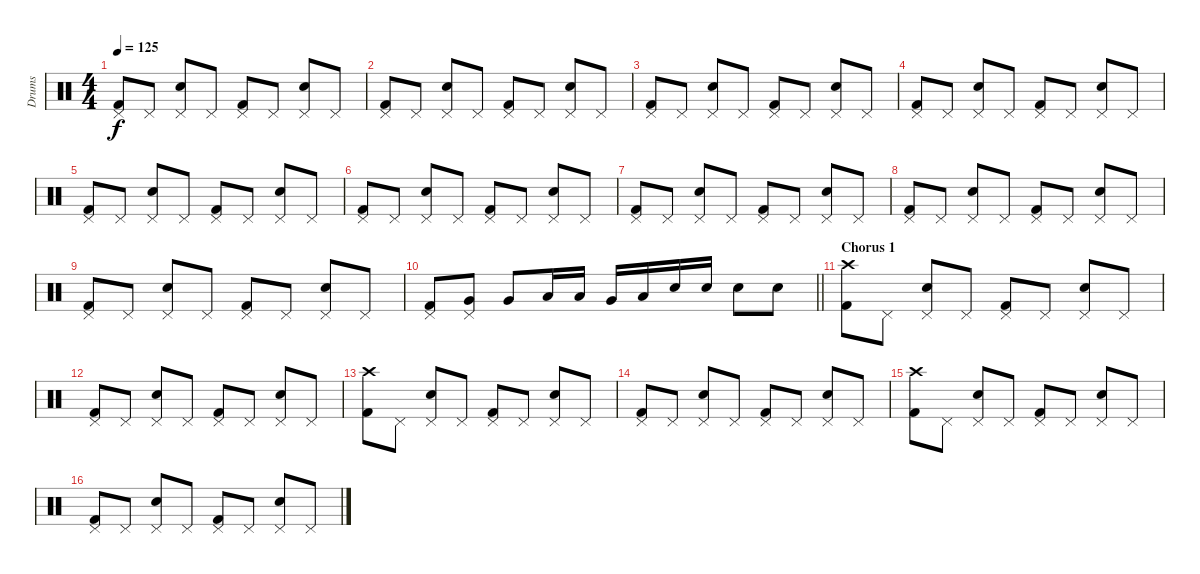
\track ("Drums" "Drums") {instrument percussion}
\staff {score}
\articulation defaults
\ts (4 4)
\tempo 125
\clef neutral
\ks c
("Pedal Hi-Hat (hit)" "Kick (hit) 2").8{dy f} "Pedal Hi-Hat (hit)".8 ("Pedal Hi-Hat (hit)" "Snare (hit) 2").8 "Pedal Hi-Hat (hit)".8 ("Pedal Hi-Hat (hit)" "Kick (hit) 2").8 "Pedal Hi-Hat (hit)".8 ("Pedal Hi-Hat (hit)" "Snare (hit) 2").8 "Pedal Hi-Hat (hit)".8 |
("Pedal Hi-Hat (hit)" "Kick (hit) 2").8 "Pedal Hi-Hat (hit)".8 ("Pedal Hi-Hat (hit)" "Snare (hit) 2").8 "Pedal Hi-Hat (hit)".8 ("Pedal Hi-Hat (hit)" "Kick (hit) 2").8 "Pedal Hi-Hat (hit)".8 ("Pedal Hi-Hat (hit)" "Snare (hit) 2").8 "Pedal Hi-Hat (hit)".8 |
("Pedal Hi-Hat (hit)" "Kick (hit) 2").8 "Pedal Hi-Hat (hit)".8 ("Pedal Hi-Hat (hit)" "Snare (hit) 2").8 "Pedal Hi-Hat (hit)".8 ("Pedal Hi-Hat (hit)" "Kick (hit) 2").8 "Pedal Hi-Hat (hit)".8 ("Pedal Hi-Hat (hit)" "Snare (hit) 2").8 "Pedal Hi-Hat (hit)".8 |
("Pedal Hi-Hat (hit)" "Kick (hit) 2").8 "Pedal Hi-Hat (hit)".8 ("Pedal Hi-Hat (hit)" "Snare (hit) 2").8 "Pedal Hi-Hat (hit)".8 ("Pedal Hi-Hat (hit)" "Kick (hit) 2").8 "Pedal Hi-Hat (hit)".8 ("Pedal Hi-Hat (hit)" "Snare (hit) 2").8 "Pedal Hi-Hat (hit)".8 |
("Pedal Hi-Hat (hit)" "Kick (hit) 2").8 "Pedal Hi-Hat (hit)".8 ("Pedal Hi-Hat (hit)" "Snare (hit) 2").8 "Pedal Hi-Hat (hit)".8 ("Pedal Hi-Hat (hit)" "Kick (hit) 2").8 "Pedal Hi-Hat (hit)".8 ("Pedal Hi-Hat (hit)" "Snare (hit) 2").8 "Pedal Hi-Hat (hit)".8 |
("Pedal Hi-Hat (hit)" "Kick (hit) 2").8 "Pedal Hi-Hat (hit)".8 ("Pedal Hi-Hat (hit)" "Snare (hit) 2").8 "Pedal Hi-Hat (hit)".8 ("Pedal Hi-Hat (hit)" "Kick (hit) 2").8 "Pedal Hi-Hat (hit)".8 ("Pedal Hi-Hat (hit)" "Snare (hit) 2").8 "Pedal Hi-Hat (hit)".8 |
("Pedal Hi-Hat (hit)" "Kick (hit) 2").8 "Pedal Hi-Hat (hit)".8 ("Pedal Hi-Hat (hit)" "Snare (hit) 2").8 "Pedal Hi-Hat (hit)".8 ("Pedal Hi-Hat (hit)" "Kick (hit) 2").8 "Pedal Hi-Hat (hit)".8 ("Pedal Hi-Hat (hit)" "Snare (hit) 2").8 "Pedal Hi-Hat (hit)".8 |
("Pedal Hi-Hat (hit)" "Kick (hit) 2").8 "Pedal Hi-Hat (hit)".8 ("Pedal Hi-Hat (hit)" "Snare (hit) 2").8 "Pedal Hi-Hat (hit)".8 ("Pedal Hi-Hat (hit)" "Kick (hit) 2").8 "Pedal Hi-Hat (hit)".8 ("Pedal Hi-Hat (hit)" "Snare (hit) 2").8 "Pedal Hi-Hat (hit)".8 |
("Pedal Hi-Hat (hit)" "Kick (hit) 2").8 "Pedal Hi-Hat (hit)".8 ("Pedal Hi-Hat (hit)" "Snare (hit) 2").8 "Pedal Hi-Hat (hit)".8 ("Pedal Hi-Hat (hit)" "Kick (hit) 2").8 "Pedal Hi-Hat (hit)".8 ("Pedal Hi-Hat (hit)" "Snare (hit) 2").8 "Pedal Hi-Hat (hit)".8 |
\barLineRight lightlight
("Pedal Hi-Hat (hit)" "Kick (hit) 2").8 ("Pedal Hi-Hat (hit)" "Very Low Tom (hit)").8 "Very Low Tom (hit)".8 "Low Floor Tom (hit)".16 "Low Floor Tom (hit)".16 "Very Low Tom (hit)".16 "Low Tom (hit)".16 "Snare (hit) 2".16 "Snare (hit) 2".16 "Snare (hit) 2".8 "Snare (hit) 2".8 |
\section ("" "Chorus 1")
("Crash high (hit)" "Kick (hit) 2").8 "Pedal Hi-Hat (hit)".8 ("Pedal Hi-Hat (hit)" "Snare (hit) 2").8 "Pedal Hi-Hat (hit)".8 ("Pedal Hi-Hat (hit)" "Kick (hit) 2").8 "Pedal Hi-Hat (hit)".8 ("Pedal Hi-Hat (hit)" "Snare (hit) 2").8 "Pedal Hi-Hat (hit)".8 |
("Pedal Hi-Hat (hit)" "Kick (hit) 2").8 "Pedal Hi-Hat (hit)".8 ("Pedal Hi-Hat (hit)" "Snare (hit) 2").8 "Pedal Hi-Hat (hit)".8 ("Pedal Hi-Hat (hit)" "Kick (hit) 2").8 "Pedal Hi-Hat (hit)".8 ("Pedal Hi-Hat (hit)" "Snare (hit) 2").8 "Pedal Hi-Hat (hit)".8 |
("Crash high (hit)" "Kick (hit) 2").8 "Pedal Hi-Hat (hit)".8 ("Pedal Hi-Hat (hit)" "Snare (hit) 2").8 "Pedal Hi-Hat (hit)".8 ("Pedal Hi-Hat (hit)" "Kick (hit) 2").8 "Pedal Hi-Hat (hit)".8 ("Pedal Hi-Hat (hit)" "Snare (hit) 2").8 "Pedal Hi-Hat (hit)".8 |
("Pedal Hi-Hat (hit)" "Kick (hit) 2").8 "Pedal Hi-Hat (hit)".8 ("Pedal Hi-Hat (hit)" "Snare (hit) 2").8 "Pedal Hi-Hat (hit)".8 ("Pedal Hi-Hat (hit)" "Kick (hit) 2").8 "Pedal Hi-Hat (hit)".8 ("Pedal Hi-Hat (hit)" "Snare (hit) 2").8 "Pedal Hi-Hat (hit)".8 |
("Crash high (hit)" "Kick (hit) 2").8 "Pedal Hi-Hat (hit)".8 ("Pedal Hi-Hat (hit)" "Snare (hit) 2").8 "Pedal Hi-Hat (hit)".8 ("Pedal Hi-Hat (hit)" "Kick (hit) 2").8 "Pedal Hi-Hat (hit)".8 ("Pedal Hi-Hat (hit)" "Snare (hit) 2").8 "Pedal Hi-Hat (hit)".8 |
("Pedal Hi-Hat (hit)" "Kick (hit) 2").8 "Pedal Hi-Hat (hit)".8 ("Pedal Hi-Hat (hit)" "Snare (hit) 2").8 "Pedal Hi-Hat (hit)".8 ("Pedal Hi-Hat (hit)" "Kick (hit) 2").8 "Pedal Hi-Hat (hit)".8 ("Pedal Hi-Hat (hit)" "Snare (hit) 2").8 "Pedal Hi-Hat (hit)".8
